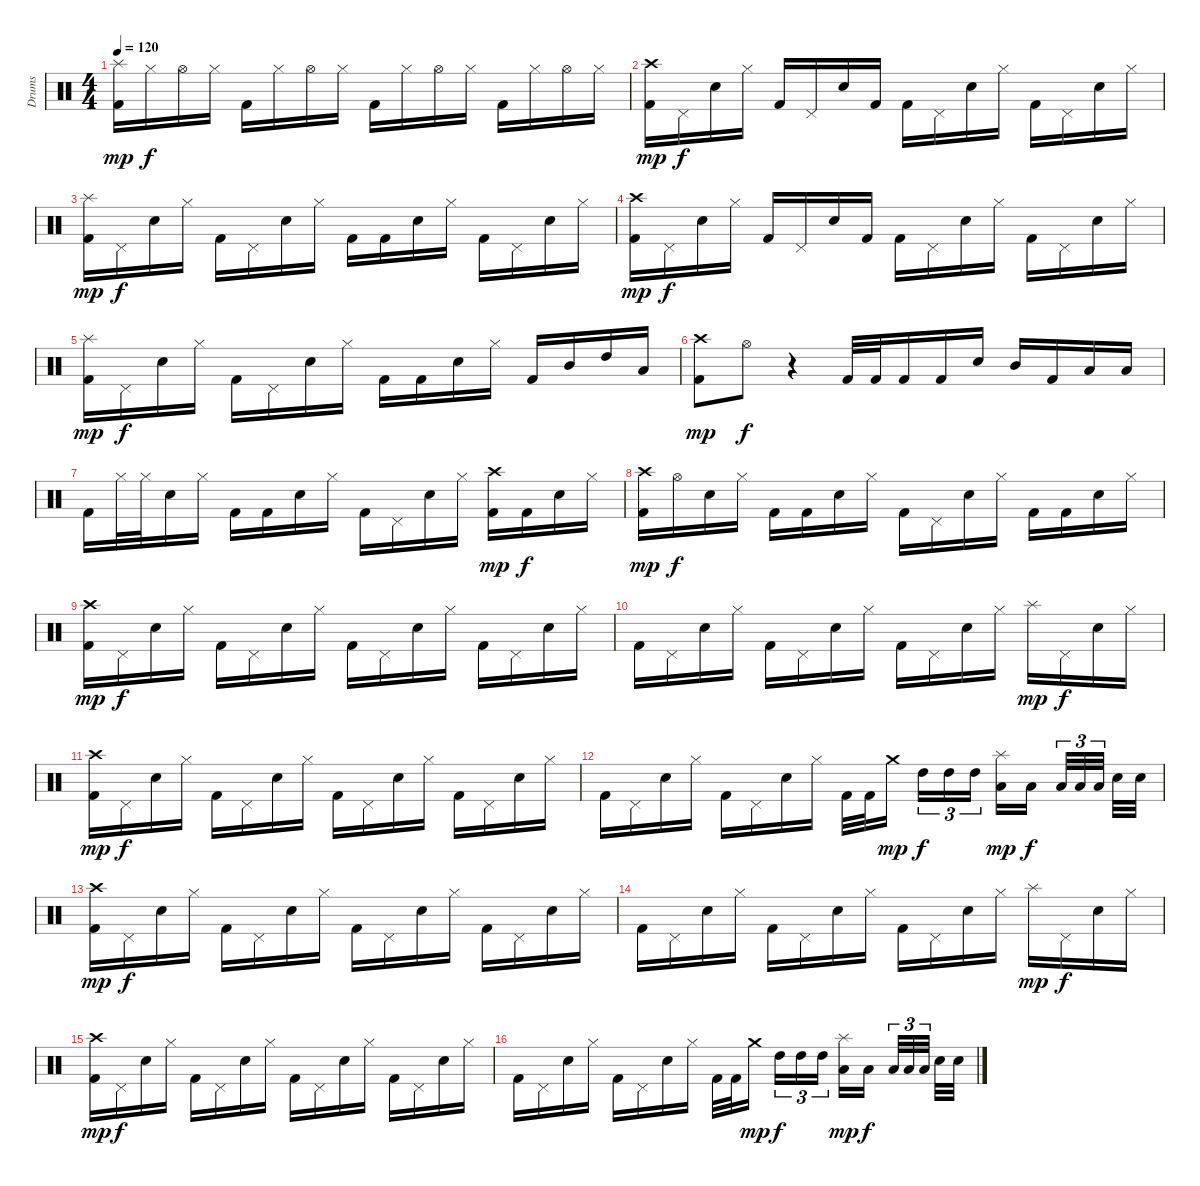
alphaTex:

\track ("Drums" "Drums") {instrument percussion}
\staff {score}
\articulation defaults
\ts (4 4)
\tempo 120
\clef neutral
\ks c
("Kick (hit) 2" "Splash (hit)").16{dy mp} "Hi-Hat (closed)".16{dy f} "Hi-Hat (open)".16 "Hi-Hat (closed)".16 "Kick (hit) 2".16 "Hi-Hat (closed)".16 "Hi-Hat (open)".16 "Hi-Hat (closed)".16 "Kick (hit) 2".16 "Hi-Hat (closed)".16 "Hi-Hat (open)".16 "Hi-Hat (closed)".16 "Kick (hit) 2".16 "Hi-Hat (closed)".16 "Hi-Hat (open)".16 "Hi-Hat (closed)".16 |
("Kick (hit) 2" "Crash high (hit)").16{dy mp} "Pedal Hi-Hat (hit)".16{dy f} "Electric Snare (hit)".16 "Hi-Hat (closed)".16 "Kick (hit) 2".16 "Pedal Hi-Hat (hit)".16 "Electric Snare (hit)".16 "Kick (hit) 2".16 "Kick (hit) 2".16 "Pedal Hi-Hat (hit)".16 "Electric Snare (hit)".16 "Hi-Hat (closed)".16 "Kick (hit) 2".16 "Pedal Hi-Hat (hit)".16 "Electric Snare (hit)".16 "Hi-Hat (closed)".16 |
("Kick (hit) 2" "Splash (hit)").16{dy mp} "Pedal Hi-Hat (hit)".16{dy f} "Electric Snare (hit)".16 "Hi-Hat (closed)".16 "Kick (hit) 2".16 "Pedal Hi-Hat (hit)".16 "Electric Snare (hit)".16 "Hi-Hat (closed)".16 "Kick (hit) 2".16 "Kick (hit) 2".16 "Electric Snare (hit)".16 "Hi-Hat (closed)".16 "Kick (hit) 2".16 "Pedal Hi-Hat (hit)".16 "Electric Snare (hit)".16 "Hi-Hat (closed)".16 |
("Kick (hit) 2" "Crash high (hit)").16{dy mp} "Pedal Hi-Hat (hit)".16{dy f} "Electric Snare (hit)".16 "Hi-Hat (closed)".16 "Kick (hit) 2".16 "Pedal Hi-Hat (hit)".16 "Electric Snare (hit)".16 "Kick (hit) 2".16 "Kick (hit) 2".16 "Pedal Hi-Hat (hit)".16 "Electric Snare (hit)".16 "Hi-Hat (closed)".16 "Kick (hit) 2".16 "Pedal Hi-Hat (hit)".16 "Electric Snare (hit)".16 "Hi-Hat (closed)".16 |
("Kick (hit) 2" "Splash (hit)").16{dy mp} "Pedal Hi-Hat (hit)".16{dy f} "Electric Snare (hit)".16 "Hi-Hat (closed)".16 "Kick (hit) 2".16 "Pedal Hi-Hat (hit)".16 "Electric Snare (hit)".16 "Hi-Hat (closed)".16 "Kick (hit) 2".16 "Kick (hit) 2".16 "Electric Snare (hit)".16 "Hi-Hat (closed)".16 "Kick (hit) 2".16 "Mid Tom (hit)".16 "High Tom (hit)".16 "Low Tom (hit)".16 |
("Kick (hit) 2" "Crash high (hit)").8{dy mp} "Hi-Hat (open)".8{dy f} r.4 "Kick (hit) 2".32 "Kick (hit) 2".32 "Kick (hit) 2".16 "Kick (hit) 2".16 "Electric Snare (hit)".16 "Mid Tom (hit)".16 "Kick (hit) 2".16 "Low Tom (hit)".16 "Low Tom (hit)".16 |
"Kick (hit) 2".16 "Hi-Hat (closed)".32 "Hi-Hat (closed)".32 "Electric Snare (hit)".16 "Hi-Hat (closed)".16 "Kick (hit) 2".16 "Kick (hit) 2".16 "Electric Snare (hit)".16 "Hi-Hat (closed)".16 "Kick (hit) 2".16 "Pedal Hi-Hat (hit)".16 "Electric Snare (hit)".16 "Hi-Hat (closed)".16 ("Kick (hit) 2" "Crash high (hit)").16{dy mp} "Kick (hit) 2".16{dy f} "Electric Snare (hit)".16 "Hi-Hat (closed)".16 |
("Kick (hit) 2" "Crash high (hit)").16{dy mp} "Hi-Hat (open)".16{dy f} "Electric Snare (hit)".16 "Hi-Hat (closed)".16 "Kick (hit) 2".16 "Kick (hit) 2".16 "Electric Snare (hit)".16 "Hi-Hat (closed)".16 "Kick (hit) 2".16 "Pedal Hi-Hat (hit)".16 "Electric Snare (hit)".16 "Hi-Hat (closed)".16 "Kick (hit) 2".16 "Kick (hit) 2".16 "Electric Snare (hit)".16 "Hi-Hat (closed)".16 |
("Kick (hit) 2" "Crash high (hit)").16{dy mp} "Pedal Hi-Hat (hit)".16{dy f} "Electric Snare (hit)".16 "Hi-Hat (closed)".16 "Kick (hit) 2".16 "Pedal Hi-Hat (hit)".16 "Electric Snare (hit)".16 "Hi-Hat (closed)".16 "Kick (hit) 2".16 "Pedal Hi-Hat (hit)".16 "Electric Snare (hit)".16 "Hi-Hat (closed)".16 "Kick (hit) 2".16 "Pedal Hi-Hat (hit)".16 "Electric Snare (hit)".16 "Hi-Hat (closed)".16 |
"Kick (hit) 2".16 "Pedal Hi-Hat (hit)".16 "Electric Snare (hit)".16 "Hi-Hat (closed)".16 "Kick (hit) 2".16 "Pedal Hi-Hat (hit)".16 "Electric Snare (hit)".16 "Hi-Hat (closed)".16 "Kick (hit) 2".16 "Pedal Hi-Hat (hit)".16 "Electric Snare (hit)".16 "Hi-Hat (closed)".16 "Splash (hit)".16{dy mp} "Pedal Hi-Hat (hit)".16{dy f} "Electric Snare (hit)".16 "Hi-Hat (closed)".16 |
("Kick (hit) 2" "Crash high (hit)").16{dy mp} "Pedal Hi-Hat (hit)".16{dy f} "Electric Snare (hit)".16 "Hi-Hat (closed)".16 "Kick (hit) 2".16 "Pedal Hi-Hat (hit)".16 "Electric Snare (hit)".16 "Hi-Hat (closed)".16 "Kick (hit) 2".16 "Pedal Hi-Hat (hit)".16 "Electric Snare (hit)".16 "Hi-Hat (closed)".16 "Kick (hit) 2".16 "Pedal Hi-Hat (hit)".16 "Electric Snare (hit)".16 "Hi-Hat (closed)".16 |
"Kick (hit) 2".16 "Pedal Hi-Hat (hit)".16 "Electric Snare (hit)".16 "Hi-Hat (closed)".16 "Kick (hit) 2".16 "Pedal Hi-Hat (hit)".16 "Electric Snare (hit)".16 "Hi-Hat (closed)".16 "Kick (hit) 2".32 "Kick (hit) 2".32 "Crash medium (hit)".16{dy mp} "High Tom (hit)".16{tu (3 2) dy f} "High Tom (hit)".16{tu (3 2)} "High Tom (hit)".16{tu (3 2)} ("Low Tom (hit)" "Splash (hit)").16{dy mp} "Low Tom (hit)".16{dy f} "Low Floor Tom (hit)".32{tu (3 2)} "Low Floor Tom (hit)".32{tu (3 2)} "Low Floor Tom (hit)".32{tu (3 2)} "Electric Snare (hit)".32 "Electric Snare (hit)".32 |
("Kick (hit) 2" "Crash high (hit)").16{dy mp} "Pedal Hi-Hat (hit)".16{dy f} "Electric Snare (hit)".16 "Hi-Hat (closed)".16 "Kick (hit) 2".16 "Pedal Hi-Hat (hit)".16 "Electric Snare (hit)".16 "Hi-Hat (closed)".16 "Kick (hit) 2".16 "Pedal Hi-Hat (hit)".16 "Electric Snare (hit)".16 "Hi-Hat (closed)".16 "Kick (hit) 2".16 "Pedal Hi-Hat (hit)".16 "Electric Snare (hit)".16 "Hi-Hat (closed)".16 |
"Kick (hit) 2".16 "Pedal Hi-Hat (hit)".16 "Electric Snare (hit)".16 "Hi-Hat (closed)".16 "Kick (hit) 2".16 "Pedal Hi-Hat (hit)".16 "Electric Snare (hit)".16 "Hi-Hat (closed)".16 "Kick (hit) 2".16 "Pedal Hi-Hat (hit)".16 "Electric Snare (hit)".16 "Hi-Hat (closed)".16 "Splash (hit)".16{dy mp} "Pedal Hi-Hat (hit)".16{dy f} "Electric Snare (hit)".16 "Hi-Hat (closed)".16 |
("Kick (hit) 2" "Crash high (hit)").16{dy mp} "Pedal Hi-Hat (hit)".16{dy f} "Electric Snare (hit)".16 "Hi-Hat (closed)".16 "Kick (hit) 2".16 "Pedal Hi-Hat (hit)".16 "Electric Snare (hit)".16 "Hi-Hat (closed)".16 "Kick (hit) 2".16 "Pedal Hi-Hat (hit)".16 "Electric Snare (hit)".16 "Hi-Hat (closed)".16 "Kick (hit) 2".16 "Pedal Hi-Hat (hit)".16 "Electric Snare (hit)".16 "Hi-Hat (closed)".16 |
"Kick (hit) 2".16 "Pedal Hi-Hat (hit)".16 "Electric Snare (hit)".16 "Hi-Hat (closed)".16 "Kick (hit) 2".16 "Pedal Hi-Hat (hit)".16 "Electric Snare (hit)".16 "Hi-Hat (closed)".16 "Kick (hit) 2".32 "Kick (hit) 2".32 "Crash medium (hit)".16{dy mp} "High Tom (hit)".16{tu (3 2) dy f} "High Tom (hit)".16{tu (3 2)} "High Tom (hit)".16{tu (3 2)} ("Low Tom (hit)" "Splash (hit)").16{dy mp} "Low Tom (hit)".16{dy f} "Low Floor Tom (hit)".32{tu (3 2)} "Low Floor Tom (hit)".32{tu (3 2)} "Low Floor Tom (hit)".32{tu (3 2)} "Electric Snare (hit)".32 "Electric Snare (hit)".32
